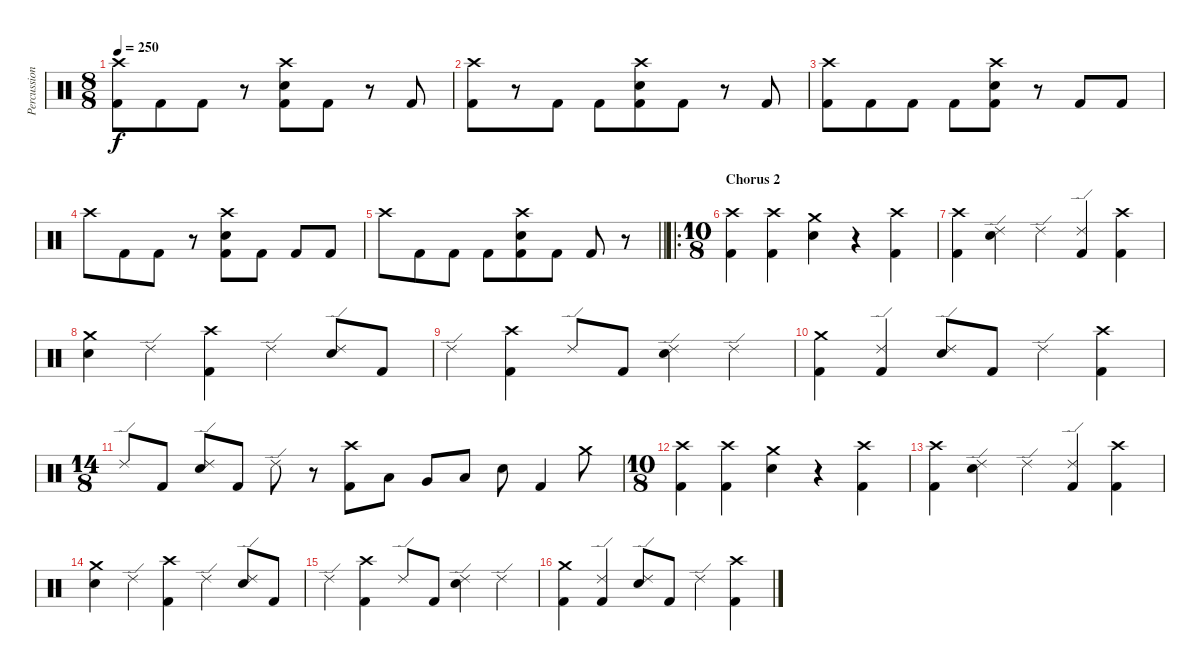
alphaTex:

\track ("Percussions" "Percussion") {instrument percussion}
\staff {score}
\articulation defaults
\ts (8 8)
\tempo 250
\clef neutral
\ks c
("Crash high (hit)" "Kick (hit) 2").8{dy f} "Kick (hit) 2".8 "Kick (hit) 2".8 r.8 ("Crash high (hit)" "Electric Snare (hit)" "Kick (hit) 2").8 "Kick (hit) 2".8 r.8 "Kick (hit) 2".8 |
("Crash high (hit)" "Kick (hit) 2").8 r.8 "Kick (hit) 2".8 "Kick (hit) 2".8 ("Crash high (hit)" "Electric Snare (hit)" "Kick (hit) 2").8 "Kick (hit) 2".8 r.8 "Kick (hit) 2".8 |
("Crash high (hit)" "Kick (hit) 2").8 "Kick (hit) 2".8 "Kick (hit) 2".8 "Kick (hit) 2".8 ("Crash high (hit)" "Electric Snare (hit)" "Kick (hit) 2").8 r.8 "Kick (hit) 2".8 "Kick (hit) 2".8 |
"Crash high (hit)".8 "Kick (hit) 2".8 "Kick (hit) 2".8 r.8 ("Crash high (hit)" "Electric Snare (hit)" "Kick (hit) 2").8 "Kick (hit) 2".8 "Kick (hit) 2".8 "Kick (hit) 2".8 |
\barLineRight lightlight "Crash high (hit)".8 "Kick (hit) 2".8 "Kick (hit) 2".8 "Kick (hit) 2".8
("Crash high (hit)" "Electric Snare (hit)" "Kick (hit) 2").8 "Kick (hit) 2".8 "Kick (hit) 2".8 r.8 |
\ro
\ts (10 8)
\section ("" "Chorus 2")
("Crash high (hit)" "Kick (hit) 2").4 ("Crash high (hit)" "Kick (hit) 2").4 ("Crash medium (hit)" "Electric Snare (hit)").4 r.4 ("Crash high (hit)" "Kick (hit) 2").4 |
("Crash high (hit)" "Kick (hit) 2").4 ("Ride (edge) 2" "Electric Snare (hit)").4 "Ride (edge) 2".4 ("Ride (edge) 2" "Kick (hit) 2").4 ("Crash high (hit)" "Kick (hit) 2").4 |
("Crash medium (hit)" "Electric Snare (hit)").4 "Ride (edge) 2".4 ("Crash high (hit)" "Kick (hit) 2").4 "Ride (edge) 2".4 ("Ride (edge) 2" "Electric Snare (hit)").8 "Kick (hit) 2".8 |
"Ride (edge) 2".4 ("Crash high (hit)" "Kick (hit) 2").4 "Ride (edge) 2".8 "Kick (hit) 2".8 ("Ride (edge) 2" "Electric Snare (hit)").4 "Ride (edge) 2".4 |
("Crash medium (hit)" "Kick (hit) 2").4 ("Ride (edge) 2" "Kick (hit) 2").4 ("Ride (edge) 2" "Electric Snare (hit)").8 "Kick (hit) 2".8 "Ride (edge) 2".4 ("Crash high (hit)" "Kick (hit) 2").4 |
\ts (14 8)
"Ride (edge) 2".8 "Kick (hit) 2".8 ("Ride (edge) 2" "Electric Snare (hit)").8 "Kick (hit) 2".8 "Ride (edge) 2".8 r.8 ("Crash high (hit)" "Kick (hit) 2").8 "Low Tom (hit)".8 "Very Low Tom (hit)".8 "Low Floor Tom (hit)".8 "Electric Snare (hit)".8 "Kick (hit) 2".4 "Crash medium (hit)".8 |
\ts (10 8)
("Crash high (hit)" "Kick (hit) 2").4 ("Crash high (hit)" "Kick (hit) 2").4 ("Crash medium (hit)" "Electric Snare (hit)").4 r.4 ("Crash high (hit)" "Kick (hit) 2").4 |
("Crash high (hit)" "Kick (hit) 2").4 ("Ride (edge) 2" "Electric Snare (hit)").4 "Ride (edge) 2".4 ("Ride (edge) 2" "Kick (hit) 2").4 ("Crash high (hit)" "Kick (hit) 2").4 |
("Crash medium (hit)" "Electric Snare (hit)").4 "Ride (edge) 2".4 ("Crash high (hit)" "Kick (hit) 2").4 "Ride (edge) 2".4 ("Ride (edge) 2" "Electric Snare (hit)").8 "Kick (hit) 2".8 |
"Ride (edge) 2".4 ("Crash high (hit)" "Kick (hit) 2").4 "Ride (edge) 2".8 "Kick (hit) 2".8 ("Ride (edge) 2" "Electric Snare (hit)").4 "Ride (edge) 2".4 |
("Crash medium (hit)" "Kick (hit) 2").4 ("Ride (edge) 2" "Kick (hit) 2").4 ("Ride (edge) 2" "Electric Snare (hit)").8 "Kick (hit) 2".8 "Ride (edge) 2".4 ("Crash high (hit)" "Kick (hit) 2").4
